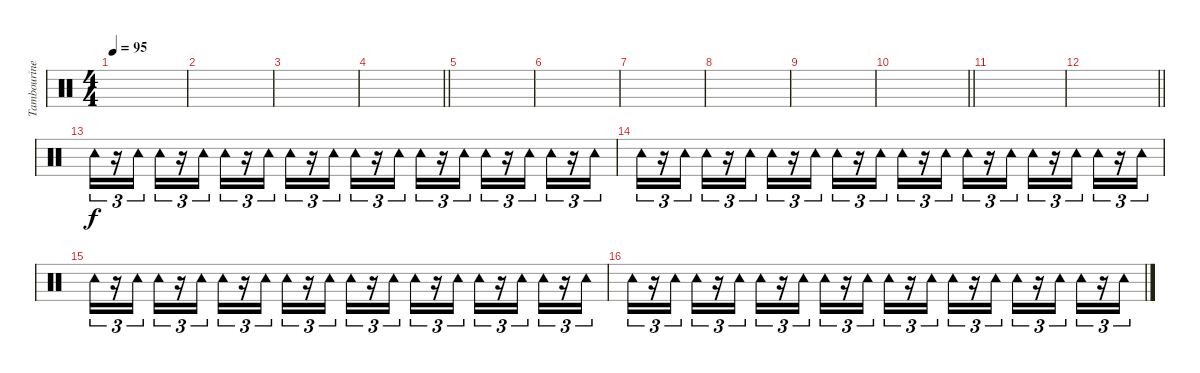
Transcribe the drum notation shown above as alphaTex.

\track ("Tambourine" "Tambourine") {instrument percussion}
\staff {score}
\articulation defaults
\ts (4 4)
\tempo 95
\clef neutral
\ks c
|
|
|
\barLineRight lightlight
|
|
|
|
|
|
\barLineRight lightlight
|
|
\barLineRight lightlight
|
"Tambourine (hit)".16{tu (3 2)} r.16{tu (3 2)} "Tambourine (hit)".16{tu (3 2)} "Tambourine (hit)".16{tu (3 2)} r.16{tu (3 2)} "Tambourine (hit)".16{tu (3 2)} "Tambourine (hit)".16{tu (3 2)} r.16{tu (3 2)} "Tambourine (hit)".16{tu (3 2)} "Tambourine (hit)".16{tu (3 2)} r.16{tu (3 2)} "Tambourine (hit)".16{tu (3 2)} "Tambourine (hit)".16{tu (3 2)} r.16{tu (3 2)} "Tambourine (hit)".16{tu (3 2)} "Tambourine (hit)".16{tu (3 2)} r.16{tu (3 2)} "Tambourine (hit)".16{tu (3 2)} "Tambourine (hit)".16{tu (3 2)} r.16{tu (3 2)} "Tambourine (hit)".16{tu (3 2)} "Tambourine (hit)".16{tu (3 2)} r.16{tu (3 2)} "Tambourine (hit)".16{tu (3 2)} |
"Tambourine (hit)".16{tu (3 2)} r.16{tu (3 2)} "Tambourine (hit)".16{tu (3 2)} "Tambourine (hit)".16{tu (3 2)} r.16{tu (3 2)} "Tambourine (hit)".16{tu (3 2)} "Tambourine (hit)".16{tu (3 2)} r.16{tu (3 2)} "Tambourine (hit)".16{tu (3 2)} "Tambourine (hit)".16{tu (3 2)} r.16{tu (3 2)} "Tambourine (hit)".16{tu (3 2)} "Tambourine (hit)".16{tu (3 2)} r.16{tu (3 2)} "Tambourine (hit)".16{tu (3 2)} "Tambourine (hit)".16{tu (3 2)} r.16{tu (3 2)} "Tambourine (hit)".16{tu (3 2)} "Tambourine (hit)".16{tu (3 2)} r.16{tu (3 2)} "Tambourine (hit)".16{tu (3 2)} "Tambourine (hit)".16{tu (3 2)} r.16{tu (3 2)} "Tambourine (hit)".16{tu (3 2)} |
"Tambourine (hit)".16{tu (3 2)} r.16{tu (3 2)} "Tambourine (hit)".16{tu (3 2)} "Tambourine (hit)".16{tu (3 2)} r.16{tu (3 2)} "Tambourine (hit)".16{tu (3 2)} "Tambourine (hit)".16{tu (3 2)} r.16{tu (3 2)} "Tambourine (hit)".16{tu (3 2)} "Tambourine (hit)".16{tu (3 2)} r.16{tu (3 2)} "Tambourine (hit)".16{tu (3 2)} "Tambourine (hit)".16{tu (3 2)} r.16{tu (3 2)} "Tambourine (hit)".16{tu (3 2)} "Tambourine (hit)".16{tu (3 2)} r.16{tu (3 2)} "Tambourine (hit)".16{tu (3 2)} "Tambourine (hit)".16{tu (3 2)} r.16{tu (3 2)} "Tambourine (hit)".16{tu (3 2)} "Tambourine (hit)".16{tu (3 2)} r.16{tu (3 2)} "Tambourine (hit)".16{tu (3 2)} |
"Tambourine (hit)".16{tu (3 2)} r.16{tu (3 2)} "Tambourine (hit)".16{tu (3 2)} "Tambourine (hit)".16{tu (3 2)} r.16{tu (3 2)} "Tambourine (hit)".16{tu (3 2)} "Tambourine (hit)".16{tu (3 2)} r.16{tu (3 2)} "Tambourine (hit)".16{tu (3 2)} "Tambourine (hit)".16{tu (3 2)} r.16{tu (3 2)} "Tambourine (hit)".16{tu (3 2)} "Tambourine (hit)".16{tu (3 2)} r.16{tu (3 2)} "Tambourine (hit)".16{tu (3 2)} "Tambourine (hit)".16{tu (3 2)} r.16{tu (3 2)} "Tambourine (hit)".16{tu (3 2)} "Tambourine (hit)".16{tu (3 2)} r.16{tu (3 2)} "Tambourine (hit)".16{tu (3 2)} "Tambourine (hit)".16{tu (3 2)} r.16{tu (3 2)} "Tambourine (hit)".16{tu (3 2)}
